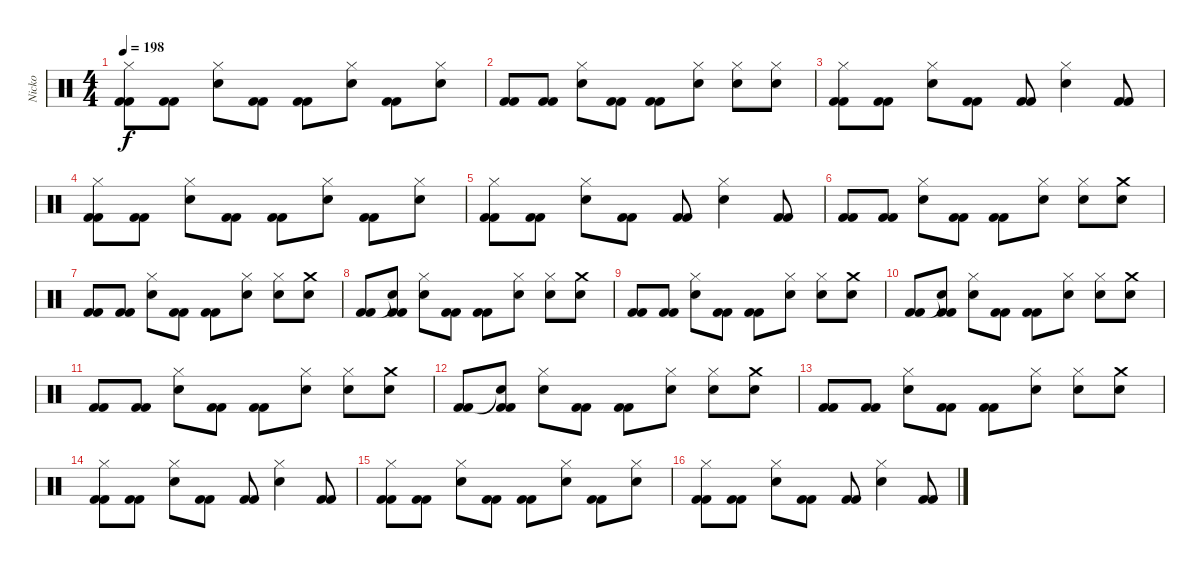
\track ("Nicko" "Nicko") {instrument percussion}
\staff {score}
\articulation defaults
\ts (4 4)
\tempo 198
\clef neutral
\ks c
("Hi-Hat (closed)" "Kick (hit) 2" "Kick (hit) 2").8{dy f} ("Kick (hit) 2" "Kick (hit) 2").8 ("Hi-Hat (closed)" "Electric Snare (hit)").8 ("Kick (hit) 2" "Kick (hit) 2").8 ("Kick (hit) 2" "Kick (hit) 2").8 ("Hi-Hat (closed)" "Electric Snare (hit)").8 ("Kick (hit) 2" "Kick (hit) 2").8 ("Hi-Hat (closed)" "Electric Snare (hit)").8 |
("Kick (hit) 2" "Kick (hit) 2").8 ("Kick (hit) 2" "Kick (hit) 2").8 ("Hi-Hat (closed)" "Electric Snare (hit)").8 ("Kick (hit) 2" "Kick (hit) 2").8 ("Kick (hit) 2" "Kick (hit) 2").8 ("Hi-Hat (closed)" "Electric Snare (hit)").8 ("Hi-Hat (closed)" "Electric Snare (hit)").8 ("Hi-Hat (closed)" "Electric Snare (hit)").8 |
("Hi-Hat (closed)" "Kick (hit) 2" "Kick (hit) 2").8 ("Kick (hit) 2" "Kick (hit) 2").8 ("Hi-Hat (closed)" "Electric Snare (hit)").8 ("Kick (hit) 2" "Kick (hit) 2").8 ("Kick (hit) 2" "Kick (hit) 2").8 ("Hi-Hat (closed)" "Electric Snare (hit)").4 ("Kick (hit) 2" "Kick (hit) 2").8 |
("Hi-Hat (closed)" "Kick (hit) 2" "Kick (hit) 2").8 ("Kick (hit) 2" "Kick (hit) 2").8 ("Hi-Hat (closed)" "Electric Snare (hit)").8 ("Kick (hit) 2" "Kick (hit) 2").8 ("Kick (hit) 2" "Kick (hit) 2").8 ("Hi-Hat (closed)" "Electric Snare (hit)").8 ("Kick (hit) 2" "Kick (hit) 2").8 ("Hi-Hat (closed)" "Electric Snare (hit)").8 |
("Hi-Hat (closed)" "Kick (hit) 2" "Kick (hit) 2").8 ("Kick (hit) 2" "Kick (hit) 2").8 ("Hi-Hat (closed)" "Electric Snare (hit)").8 ("Kick (hit) 2" "Kick (hit) 2").8 ("Kick (hit) 2" "Kick (hit) 2").8 ("Hi-Hat (closed)" "Electric Snare (hit)").4 ("Kick (hit) 2" "Kick (hit) 2").8 |
("Kick (hit) 2" "Kick (hit) 2").8 ("Kick (hit) 2" "Kick (hit) 2").8 ("Hi-Hat (closed)" "Electric Snare (hit)").8 ("Kick (hit) 2" "Kick (hit) 2").8 ("Kick (hit) 2" "Kick (hit) 2").8 ("Hi-Hat (closed)" "Electric Snare (hit)").8 ("Hi-Hat (closed)" "Electric Snare (hit)").8 ("Crash medium (hit)" "Electric Snare (hit)").8 |
("Kick (hit) 2" "Kick (hit) 2").8 ("Kick (hit) 2" "Kick (hit) 2").8 ("Hi-Hat (closed)" "Electric Snare (hit)").8 ("Kick (hit) 2" "Kick (hit) 2").8 ("Kick (hit) 2" "Kick (hit) 2").8 ("Hi-Hat (closed)" "Electric Snare (hit)").8 ("Hi-Hat (closed)" "Electric Snare (hit)").8 ("Crash medium (hit)" "Electric Snare (hit)").8 |
("Kick (hit) 2" "Kick (hit) 2").8 ("Snare (hit)"{t} "Kick (hit) 2" "Kick (hit) 2").8 ("Hi-Hat (closed)" "Electric Snare (hit)").8 ("Kick (hit) 2" "Kick (hit) 2").8 ("Kick (hit) 2" "Kick (hit) 2").8 ("Hi-Hat (closed)" "Electric Snare (hit)").8 ("Hi-Hat (closed)" "Electric Snare (hit)").8 ("Crash medium (hit)" "Electric Snare (hit)").8 |
("Kick (hit) 2" "Kick (hit) 2").8 ("Kick (hit) 2" "Kick (hit) 2").8 ("Hi-Hat (closed)" "Electric Snare (hit)").8 ("Kick (hit) 2" "Kick (hit) 2").8 ("Kick (hit) 2" "Kick (hit) 2").8 ("Hi-Hat (closed)" "Electric Snare (hit)").8 ("Hi-Hat (closed)" "Electric Snare (hit)").8 ("Crash medium (hit)" "Electric Snare (hit)").8 |
("Kick (hit) 2" "Kick (hit) 2").8 ("Snare (hit)"{t} "Kick (hit) 2" "Kick (hit) 2").8 ("Hi-Hat (closed)" "Electric Snare (hit)").8 ("Kick (hit) 2" "Kick (hit) 2").8 ("Kick (hit) 2" "Kick (hit) 2").8 ("Hi-Hat (closed)" "Electric Snare (hit)").8 ("Hi-Hat (closed)" "Electric Snare (hit)").8 ("Crash medium (hit)" "Electric Snare (hit)").8 |
("Kick (hit) 2" "Kick (hit) 2").8 ("Kick (hit) 2" "Kick (hit) 2").8 ("Hi-Hat (closed)" "Electric Snare (hit)").8 ("Kick (hit) 2" "Kick (hit) 2").8 ("Kick (hit) 2" "Kick (hit) 2").8 ("Hi-Hat (closed)" "Electric Snare (hit)").8 ("Hi-Hat (closed)" "Electric Snare (hit)").8 ("Crash medium (hit)" "Electric Snare (hit)").8 |
("Kick (hit) 2" "Kick (hit) 2").8 ("Snare (hit)"{t} "Kick (hit) 2" "Kick (hit) 2").8 ("Hi-Hat (closed)" "Electric Snare (hit)").8 ("Kick (hit) 2" "Kick (hit) 2").8 ("Kick (hit) 2" "Kick (hit) 2").8 ("Hi-Hat (closed)" "Electric Snare (hit)").8 ("Hi-Hat (closed)" "Electric Snare (hit)").8 ("Crash medium (hit)" "Electric Snare (hit)").8 |
("Kick (hit) 2" "Kick (hit) 2").8 ("Kick (hit) 2" "Kick (hit) 2").8 ("Hi-Hat (closed)" "Electric Snare (hit)").8 ("Kick (hit) 2" "Kick (hit) 2").8 ("Kick (hit) 2" "Kick (hit) 2").8 ("Hi-Hat (closed)" "Electric Snare (hit)").8 ("Hi-Hat (closed)" "Electric Snare (hit)").8 ("Crash medium (hit)" "Electric Snare (hit)").8 |
("Hi-Hat (closed)" "Kick (hit) 2" "Kick (hit) 2").8 ("Kick (hit) 2" "Kick (hit) 2").8 ("Hi-Hat (closed)" "Electric Snare (hit)").8 ("Kick (hit) 2" "Kick (hit) 2").8 ("Kick (hit) 2" "Kick (hit) 2").8 ("Hi-Hat (closed)" "Electric Snare (hit)").4 ("Kick (hit) 2" "Kick (hit) 2").8 |
("Hi-Hat (closed)" "Kick (hit) 2" "Kick (hit) 2").8 ("Kick (hit) 2" "Kick (hit) 2").8 ("Hi-Hat (closed)" "Electric Snare (hit)").8 ("Kick (hit) 2" "Kick (hit) 2").8 ("Kick (hit) 2" "Kick (hit) 2").8 ("Hi-Hat (closed)" "Electric Snare (hit)").8 ("Kick (hit) 2" "Kick (hit) 2").8 ("Hi-Hat (closed)" "Electric Snare (hit)").8 |
("Hi-Hat (closed)" "Kick (hit) 2" "Kick (hit) 2").8 ("Kick (hit) 2" "Kick (hit) 2").8 ("Hi-Hat (closed)" "Electric Snare (hit)").8 ("Kick (hit) 2" "Kick (hit) 2").8 ("Kick (hit) 2" "Kick (hit) 2").8 ("Hi-Hat (closed)" "Electric Snare (hit)").4 ("Kick (hit) 2" "Kick (hit) 2").8
